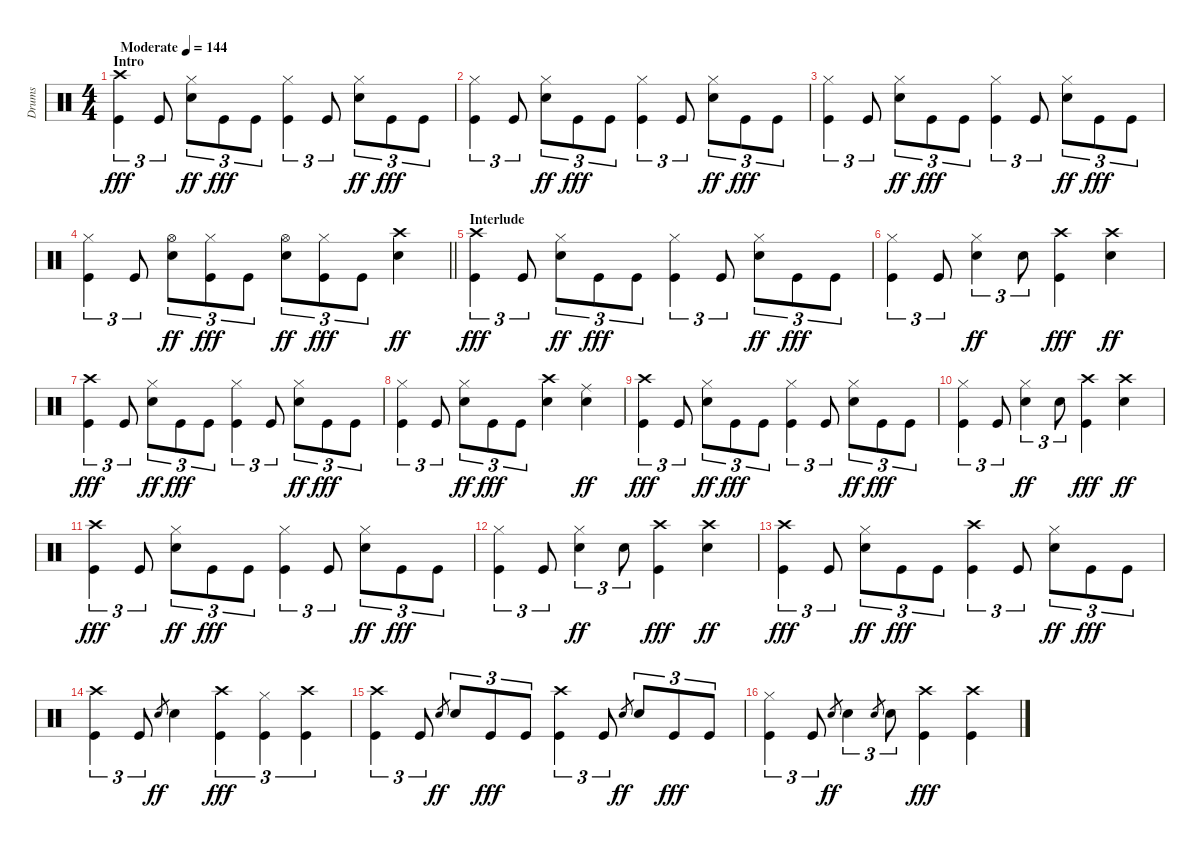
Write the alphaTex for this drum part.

\track ("Drums" "Drums") {instrument percussion}
\staff {score}
\articulation defaults
\ts (4 4)
\section ("" "Intro")
\tempo (144 "Moderate")
\clef neutral
\ks c
("Kick (hit)" "Crash high (hit)").4{tu (3 2) dy fff} "Kick (hit)".8{tu (3 2)} ("Hi-Hat (closed)" "Snare (hit) 2").8{tu (3 2) dy ff} "Kick (hit)".8{tu (3 2) dy fff} "Kick (hit)".8{tu (3 2)} ("Hi-Hat (closed)" "Kick (hit)").4{tu (3 2)} "Kick (hit)".8{tu (3 2)} ("Hi-Hat (closed)" "Snare (hit) 2").8{tu (3 2) dy ff} "Kick (hit)".8{tu (3 2) dy fff} "Kick (hit)".8{tu (3 2)} |
("Kick (hit)" "Hi-Hat (closed)").4{tu (3 2)} "Kick (hit)".8{tu (3 2)} ("Hi-Hat (closed)" "Snare (hit) 2").8{tu (3 2) dy ff} "Kick (hit)".8{tu (3 2) dy fff} "Kick (hit)".8{tu (3 2)} ("Hi-Hat (closed)" "Kick (hit)").4{tu (3 2)} "Kick (hit)".8{tu (3 2)} ("Hi-Hat (closed)" "Snare (hit) 2").8{tu (3 2) dy ff} "Kick (hit)".8{tu (3 2) dy fff} "Kick (hit)".8{tu (3 2)} |
("Kick (hit)" "Hi-Hat (closed)").4{tu (3 2)} "Kick (hit)".8{tu (3 2)} ("Hi-Hat (closed)" "Snare (hit) 2").8{tu (3 2) dy ff} "Kick (hit)".8{tu (3 2) dy fff} "Kick (hit)".8{tu (3 2)} ("Hi-Hat (closed)" "Kick (hit)").4{tu (3 2)} "Kick (hit)".8{tu (3 2)} ("Hi-Hat (closed)" "Snare (hit) 2").8{tu (3 2) dy ff} "Kick (hit)".8{tu (3 2) dy fff} "Kick (hit)".8{tu (3 2)} |
\barLineRight lightlight
("Kick (hit)" "Hi-Hat (closed)").4{tu (3 2)} "Kick (hit)".8{tu (3 2)} ("Hi-Hat (open)" "Snare (hit) 2").8{tu (3 2) dy ff} ("Kick (hit)" "Hi-Hat (closed)").8{tu (3 2) dy fff} "Kick (hit)".8{tu (3 2)} ("Hi-Hat (open)" "Snare (hit) 2").8{tu (3 2) dy ff} ("Hi-Hat (closed)" "Kick (hit)").8{tu (3 2) dy fff} "Kick (hit)".8{tu (3 2)} ("Crash high (hit)" "Snare (hit) 2").4{dy ff} |
\section ("" "Interlude")
("Kick (hit)" "Crash high (hit)").4{tu (3 2) dy fff} "Kick (hit)".8{tu (3 2)} ("Hi-Hat (closed)" "Snare (hit) 2").8{tu (3 2) dy ff} "Kick (hit)".8{tu (3 2) dy fff} "Kick (hit)".8{tu (3 2)} ("Hi-Hat (closed)" "Kick (hit)").4{tu (3 2)} "Kick (hit)".8{tu (3 2)} ("Hi-Hat (closed)" "Snare (hit) 2").8{tu (3 2) dy ff} "Kick (hit)".8{tu (3 2) dy fff} "Kick (hit)".8{tu (3 2)} |
("Kick (hit)" "Hi-Hat (closed)").4{tu (3 2)} "Kick (hit)".8{tu (3 2)} ("Hi-Hat (closed)" "Snare (hit) 2").4{tu (3 2) dy ff} "Snare (hit) 2".8{tu (3 2)} ("Crash high (hit)" "Kick (hit)").4{dy fff} ("Snare (hit) 2" "Crash high (hit)").4{dy ff} |
("Kick (hit)" "Crash high (hit)").4{tu (3 2) dy fff} "Kick (hit)".8{tu (3 2)} ("Hi-Hat (closed)" "Snare (hit) 2").8{tu (3 2) dy ff} "Kick (hit)".8{tu (3 2) dy fff} "Kick (hit)".8{tu (3 2)} ("Hi-Hat (closed)" "Kick (hit)").4{tu (3 2)} "Kick (hit)".8{tu (3 2)} ("Hi-Hat (closed)" "Snare (hit) 2").8{tu (3 2) dy ff} "Kick (hit)".8{tu (3 2) dy fff} "Kick (hit)".8{tu (3 2)} |
("Kick (hit)" "Hi-Hat (closed)").4{tu (3 2)} "Kick (hit)".8{tu (3 2)} ("Hi-Hat (closed)" "Snare (hit) 2").8{tu (3 2) dy ff} "Kick (hit)".8{tu (3 2) dy fff} "Kick (hit)".8{tu (3 2)} ("Crash high (hit)" "Snare (hit) 2").4 ("Snare (hit) 2" "Ride (middle)").4{dy ff} |
("Kick (hit)" "Crash high (hit)").4{tu (3 2) dy fff} "Kick (hit)".8{tu (3 2)} ("Hi-Hat (closed)" "Snare (hit) 2").8{tu (3 2) dy ff} "Kick (hit)".8{tu (3 2) dy fff} "Kick (hit)".8{tu (3 2)} ("Hi-Hat (closed)" "Kick (hit)").4{tu (3 2)} "Kick (hit)".8{tu (3 2)} ("Hi-Hat (closed)" "Snare (hit) 2").8{tu (3 2) dy ff} "Kick (hit)".8{tu (3 2) dy fff} "Kick (hit)".8{tu (3 2)} |
("Kick (hit)" "Hi-Hat (closed)").4{tu (3 2)} "Kick (hit)".8{tu (3 2)} ("Hi-Hat (closed)" "Snare (hit) 2").4{tu (3 2) dy ff} "Snare (hit) 2".8{tu (3 2)} ("Crash high (hit)" "Kick (hit)").4{dy fff} ("Snare (hit) 2" "Crash high (hit)").4{dy ff} |
("Kick (hit)" "Crash high (hit)").4{tu (3 2) dy fff} "Kick (hit)".8{tu (3 2)} ("Hi-Hat (closed)" "Snare (hit) 2").8{tu (3 2) dy ff} "Kick (hit)".8{tu (3 2) dy fff} "Kick (hit)".8{tu (3 2)} ("Hi-Hat (closed)" "Kick (hit)").4{tu (3 2)} "Kick (hit)".8{tu (3 2)} ("Hi-Hat (closed)" "Snare (hit) 2").8{tu (3 2) dy ff} "Kick (hit)".8{tu (3 2) dy fff} "Kick (hit)".8{tu (3 2)} |
("Kick (hit)" "Hi-Hat (closed)").4{tu (3 2)} "Kick (hit)".8{tu (3 2)} ("Hi-Hat (closed)" "Snare (hit) 2").4{tu (3 2) dy ff} "Snare (hit) 2".8{tu (3 2)} ("Crash high (hit)" "Kick (hit)").4{dy fff} ("Snare (hit) 2" "Crash high (hit)").4{dy ff} |
("Kick (hit)" "Crash high (hit)").4{tu (3 2) dy fff} "Kick (hit)".8{tu (3 2)} ("Hi-Hat (closed)" "Snare (hit) 2").8{tu (3 2) dy ff} "Kick (hit)".8{tu (3 2) dy fff} "Kick (hit)".8{tu (3 2)} ("Crash high (hit)" "Kick (hit)").4{tu (3 2)} "Kick (hit)".8{tu (3 2)} ("Hi-Hat (closed)" "Snare (hit) 2").8{tu (3 2) dy ff} "Kick (hit)".8{tu (3 2) dy fff} "Kick (hit)".8{tu (3 2)} |
("Kick (hit)" "Crash high (hit)").4{tu (3 2)} "Kick (hit)".8{tu (3 2)} "Snare (hit) 2".8{gr dy ff} "Snare (hit) 2".4 ("Crash high (hit)" "Kick (hit)").4{tu (3 2) dy fff} ("Kick (hit)" "Hi-Hat (closed)").4{tu (3 2)} ("Crash high (hit)" "Kick (hit)").4{tu (3 2)} |
("Kick (hit)" "Crash high (hit)").4{tu (3 2)} "Kick (hit)".8{tu (3 2)} "Snare (hit) 2".8{gr dy ff} "Snare (hit) 2".8{tu (3 2)} "Kick (hit)".8{tu (3 2) dy fff} "Kick (hit)".8{tu (3 2)} ("Crash high (hit)" "Kick (hit)").4{tu (3 2)} "Kick (hit)".8{tu (3 2)} "Snare (hit) 2".8{gr dy ff} "Snare (hit) 2".8{tu (3 2)} "Kick (hit)".8{tu (3 2) dy fff} "Kick (hit)".8{tu (3 2)} |
("Kick (hit)" "Hi-Hat (closed)").4{tu (3 2)} "Kick (hit)".8{tu (3 2)} "Snare (hit) 2".8{gr dy ff} "Snare (hit) 2".4{tu (3 2)} "Snare (hit) 2".8{gr} "Snare (hit) 2".8{tu (3 2)} ("Kick (hit)" "Crash high (hit)").4{dy fff} ("Crash high (hit)" "Kick (hit)").4
